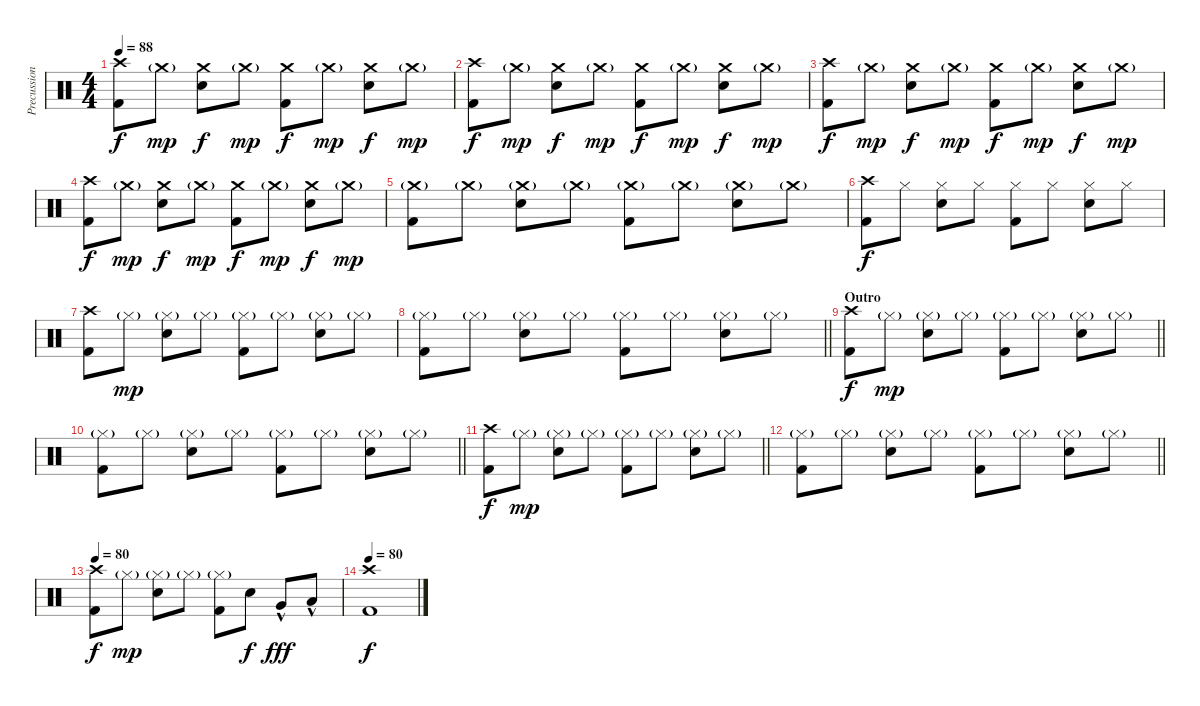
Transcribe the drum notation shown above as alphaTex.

\track ("Precussion" "Precussion") {instrument percussion}
\staff {score}
\articulation defaults
\ts (4 4)
\tempo 88
\clef neutral
\ks c
("Crash high (hit)" "Kick (hit) 2").8{dy f} "Crash medium (hit)"{g}.8{dy mp} ("Crash medium (hit)" "Electric Snare (hit)").8{dy f} "Crash medium (hit)"{g}.8{dy mp} ("Crash medium (hit)" "Kick (hit) 2").8{dy f} "Crash medium (hit)"{g}.8{dy mp} ("Crash medium (hit)" "Electric Snare (hit)").8{dy f} "Crash medium (hit)"{g}.8{dy mp} |
("Crash high (hit)" "Kick (hit) 2").8{dy f} "Crash medium (hit)"{g}.8{dy mp} ("Crash medium (hit)" "Electric Snare (hit)").8{dy f} "Crash medium (hit)"{g}.8{dy mp} ("Crash medium (hit)" "Kick (hit) 2").8{dy f} "Crash medium (hit)"{g}.8{dy mp} ("Crash medium (hit)" "Electric Snare (hit)").8{dy f} "Crash medium (hit)"{g}.8{dy mp} |
("Crash high (hit)" "Kick (hit) 2").8{dy f} "Crash medium (hit)"{g}.8{dy mp} ("Crash medium (hit)" "Electric Snare (hit)").8{dy f} "Crash medium (hit)"{g}.8{dy mp} ("Crash medium (hit)" "Kick (hit) 2").8{dy f} "Crash medium (hit)"{g}.8{dy mp} ("Crash medium (hit)" "Electric Snare (hit)").8{dy f} "Crash medium (hit)"{g}.8{dy mp} |
("Crash high (hit)" "Kick (hit) 2").8{dy f} "Crash medium (hit)"{g}.8{dy mp} ("Crash medium (hit)" "Electric Snare (hit)").8{dy f} "Crash medium (hit)"{g}.8{dy mp} ("Crash medium (hit)" "Kick (hit) 2").8{dy f} "Crash medium (hit)"{g}.8{dy mp} ("Crash medium (hit)" "Electric Snare (hit)").8{dy f} "Crash medium (hit)"{g}.8{dy mp} |
("Crash medium (hit)"{g} "Kick (hit) 2").8 "Crash medium (hit)"{g}.8 ("Crash medium (hit)"{g} "Electric Snare (hit)").8 "Crash medium (hit)"{g}.8 ("Crash medium (hit)"{g} "Kick (hit) 2").8 "Crash medium (hit)"{g}.8 ("Crash medium (hit)"{g} "Electric Snare (hit)").8 "Crash medium (hit)"{g}.8 |
("Crash high (hit)" "Kick (hit) 2").8{dy f} "Hi-Hat (closed)".8 ("Hi-Hat (closed)" "Electric Snare (hit)").8 "Hi-Hat (closed)".8 ("Hi-Hat (closed)" "Kick (hit) 2").8 "Hi-Hat (closed)".8 ("Hi-Hat (closed)" "Electric Snare (hit)").8 "Hi-Hat (closed)".8 |
("Crash high (hit)" "Kick (hit) 2").8 "Hi-Hat (closed)"{g}.8{dy mp} ("Hi-Hat (closed)"{g} "Electric Snare (hit)").8 "Hi-Hat (closed)"{g}.8 ("Hi-Hat (closed)"{g} "Kick (hit) 2").8 "Hi-Hat (closed)"{g}.8 ("Hi-Hat (closed)"{g} "Electric Snare (hit)").8 "Hi-Hat (closed)"{g}.8 |
\barLineRight lightlight
("Hi-Hat (closed)"{g} "Kick (hit) 2").8 "Hi-Hat (closed)"{g}.8 ("Hi-Hat (closed)"{g} "Electric Snare (hit)").8 "Hi-Hat (closed)"{g}.8 ("Hi-Hat (closed)"{g} "Kick (hit) 2").8 "Hi-Hat (closed)"{g}.8 ("Hi-Hat (closed)"{g} "Electric Snare (hit)").8 "Hi-Hat (closed)"{g}.8 |
\section ("" "Outro")
\barLineRight lightlight
("Crash high (hit)" "Kick (hit) 2").8{dy f} "Hi-Hat (closed)"{g}.8{dy mp} ("Hi-Hat (closed)"{g} "Electric Snare (hit)").8 "Hi-Hat (closed)"{g}.8 ("Hi-Hat (closed)"{g} "Kick (hit) 2").8 "Hi-Hat (closed)"{g}.8 ("Hi-Hat (closed)"{g} "Electric Snare (hit)").8 "Hi-Hat (closed)"{g}.8 |
\barLineRight lightlight
("Hi-Hat (closed)"{g} "Kick (hit) 2").8 "Hi-Hat (closed)"{g}.8 ("Hi-Hat (closed)"{g} "Electric Snare (hit)").8 "Hi-Hat (closed)"{g}.8 ("Hi-Hat (closed)"{g} "Kick (hit) 2").8 "Hi-Hat (closed)"{g}.8 ("Hi-Hat (closed)"{g} "Electric Snare (hit)").8 "Hi-Hat (closed)"{g}.8 |
\barLineRight lightlight
("Crash high (hit)" "Kick (hit) 2").8{dy f} "Hi-Hat (closed)"{g}.8{dy mp} ("Hi-Hat (closed)"{g} "Electric Snare (hit)").8 "Hi-Hat (closed)"{g}.8 ("Hi-Hat (closed)"{g} "Kick (hit) 2").8 "Hi-Hat (closed)"{g}.8 ("Hi-Hat (closed)"{g} "Electric Snare (hit)").8 "Hi-Hat (closed)"{g}.8 |
\barLineRight lightlight
("Hi-Hat (closed)"{g} "Kick (hit) 2").8 "Hi-Hat (closed)"{g}.8 ("Hi-Hat (closed)"{g} "Electric Snare (hit)").8 "Hi-Hat (closed)"{g}.8 ("Hi-Hat (closed)"{g} "Kick (hit) 2").8 "Hi-Hat (closed)"{g}.8 ("Hi-Hat (closed)"{g} "Electric Snare (hit)").8 "Hi-Hat (closed)"{g}.8 |
\tempo 80
("Crash high (hit)" "Kick (hit) 2").8{dy f} "Hi-Hat (closed)"{g}.8{dy mp} ("Hi-Hat (closed)"{g} "Electric Snare (hit)").8 "Hi-Hat (closed)"{g}.8 ("Hi-Hat (closed)"{g} "Kick (hit) 2").8 "Electric Snare (hit)".8{dy f} "Very Low Tom (hit)"{hac}.8{dy fff} "Low Floor Tom (hit)"{hac}.8 |
\tempo 80
("Crash high (hit)" "Kick (hit) 2").1{dy f}
